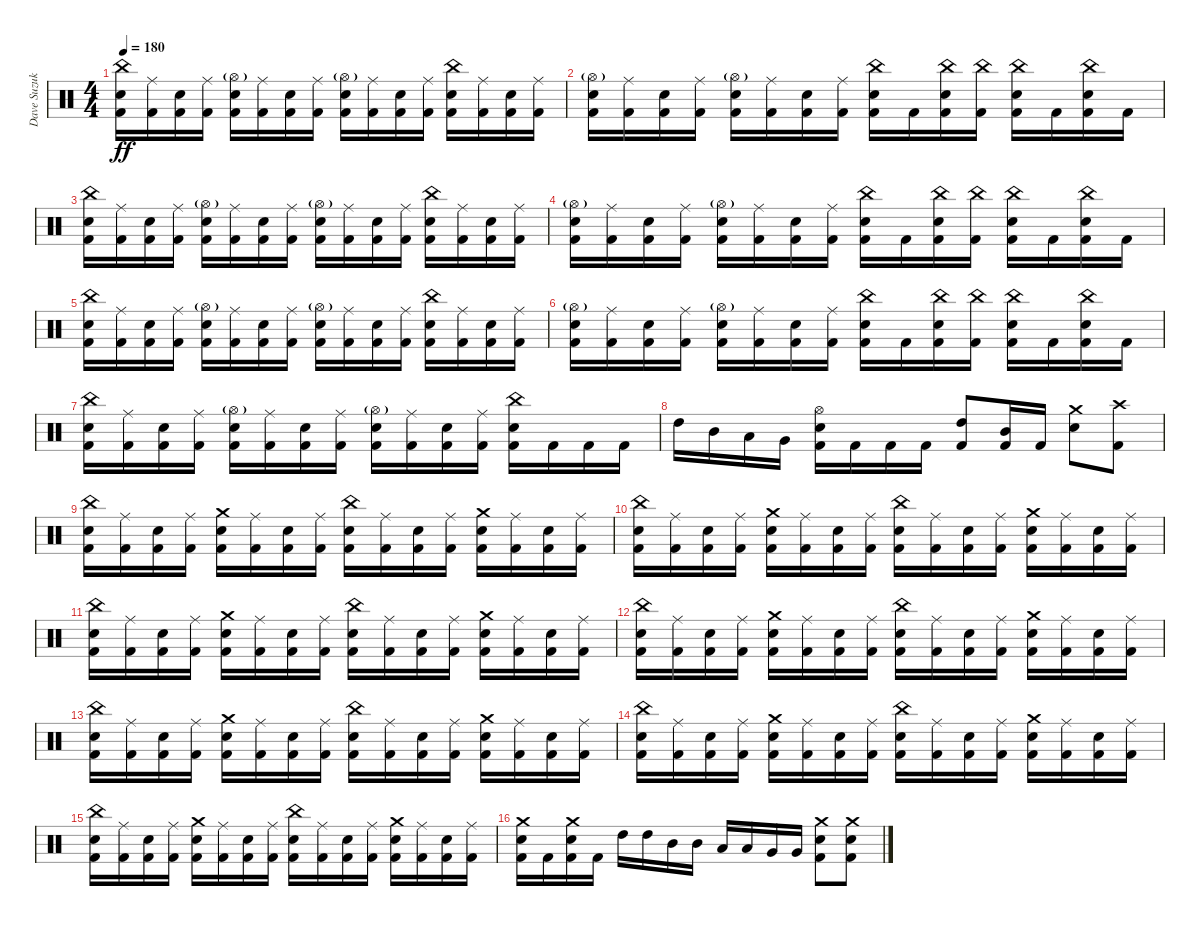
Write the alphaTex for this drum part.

\track ("Dave Suzuki - Drums" "Dave Suzuk") {instrument percussion}
\staff {score}
\articulation defaults
\ts (4 4)
\tempo 180
\clef neutral
\ks c
("China (hit)" "Electric Snare (hit)" "Kick (hit) 2").16{dy ff} ("Ride (middle)" "Kick (hit) 2").16 ("Electric Snare (hit)" "Kick (hit) 2").16 ("Ride (middle)" "Kick (hit) 2").16 ("Hi-Hat (open)"{g} "Electric Snare (hit)" "Kick (hit) 2").16 ("Ride (middle)" "Kick (hit) 2").16 ("Electric Snare (hit)" "Kick (hit) 2").16 ("Ride (middle)" "Kick (hit) 2").16 ("Hi-Hat (open)"{g} "Electric Snare (hit)" "Kick (hit) 2").16 ("Ride (middle)" "Kick (hit) 2").16 ("Electric Snare (hit)" "Kick (hit) 2").16 ("Ride (middle)" "Kick (hit) 2").16 ("China (hit)" "Electric Snare (hit)" "Kick (hit) 2").16 ("Ride (middle)" "Kick (hit) 2").16 ("Electric Snare (hit)" "Kick (hit) 2").16 ("Ride (middle)" "Kick (hit) 2").16 |
("Hi-Hat (open)"{g} "Electric Snare (hit)" "Kick (hit) 2").16 ("Ride (middle)" "Kick (hit) 2").16 ("Electric Snare (hit)" "Kick (hit) 2").16 ("Ride (middle)" "Kick (hit) 2").16 ("Hi-Hat (open)"{g} "Electric Snare (hit)" "Kick (hit) 2").16 ("Ride (middle)" "Kick (hit) 2").16 ("Electric Snare (hit)" "Kick (hit) 2").16 ("Ride (middle)" "Kick (hit) 2").16 ("China (hit)" "Electric Snare (hit)" "Kick (hit) 2").16 "Kick (hit) 2".16 ("China (hit)" "Electric Snare (hit)" "Kick (hit) 2").16 ("China (hit)" "Kick (hit) 2").16 ("China (hit)" "Electric Snare (hit)" "Kick (hit) 2").16 "Kick (hit) 2".16 ("China (hit)" "Electric Snare (hit)" "Kick (hit) 2").16 "Kick (hit) 2".16 |
("China (hit)" "Electric Snare (hit)" "Kick (hit) 2").16 ("Ride (middle)" "Kick (hit) 2").16 ("Electric Snare (hit)" "Kick (hit) 2").16 ("Ride (middle)" "Kick (hit) 2").16 ("Hi-Hat (open)"{g} "Electric Snare (hit)" "Kick (hit) 2").16 ("Ride (middle)" "Kick (hit) 2").16 ("Electric Snare (hit)" "Kick (hit) 2").16 ("Ride (middle)" "Kick (hit) 2").16 ("Hi-Hat (open)"{g} "Electric Snare (hit)" "Kick (hit) 2").16 ("Ride (middle)" "Kick (hit) 2").16 ("Electric Snare (hit)" "Kick (hit) 2").16 ("Ride (middle)" "Kick (hit) 2").16 ("China (hit)" "Electric Snare (hit)" "Kick (hit) 2").16 ("Ride (middle)" "Kick (hit) 2").16 ("Electric Snare (hit)" "Kick (hit) 2").16 ("Ride (middle)" "Kick (hit) 2").16 |
("Hi-Hat (open)"{g} "Electric Snare (hit)" "Kick (hit) 2").16 ("Ride (middle)" "Kick (hit) 2").16 ("Electric Snare (hit)" "Kick (hit) 2").16 ("Ride (middle)" "Kick (hit) 2").16 ("Hi-Hat (open)"{g} "Electric Snare (hit)" "Kick (hit) 2").16 ("Ride (middle)" "Kick (hit) 2").16 ("Electric Snare (hit)" "Kick (hit) 2").16 ("Ride (middle)" "Kick (hit) 2").16 ("China (hit)" "Electric Snare (hit)" "Kick (hit) 2").16 "Kick (hit) 2".16 ("China (hit)" "Electric Snare (hit)" "Kick (hit) 2").16 ("China (hit)" "Kick (hit) 2").16 ("China (hit)" "Electric Snare (hit)" "Kick (hit) 2").16 "Kick (hit) 2".16 ("China (hit)" "Electric Snare (hit)" "Kick (hit) 2").16 "Kick (hit) 2".16 |
("China (hit)" "Electric Snare (hit)" "Kick (hit) 2").16 ("Ride (middle)" "Kick (hit) 2").16 ("Electric Snare (hit)" "Kick (hit) 2").16 ("Ride (middle)" "Kick (hit) 2").16 ("Hi-Hat (open)"{g} "Electric Snare (hit)" "Kick (hit) 2").16 ("Ride (middle)" "Kick (hit) 2").16 ("Electric Snare (hit)" "Kick (hit) 2").16 ("Ride (middle)" "Kick (hit) 2").16 ("Hi-Hat (open)"{g} "Electric Snare (hit)" "Kick (hit) 2").16 ("Ride (middle)" "Kick (hit) 2").16 ("Electric Snare (hit)" "Kick (hit) 2").16 ("Ride (middle)" "Kick (hit) 2").16 ("China (hit)" "Electric Snare (hit)" "Kick (hit) 2").16 ("Ride (middle)" "Kick (hit) 2").16 ("Electric Snare (hit)" "Kick (hit) 2").16 ("Ride (middle)" "Kick (hit) 2").16 |
("Hi-Hat (open)"{g} "Electric Snare (hit)" "Kick (hit) 2").16 ("Ride (middle)" "Kick (hit) 2").16 ("Electric Snare (hit)" "Kick (hit) 2").16 ("Ride (middle)" "Kick (hit) 2").16 ("Hi-Hat (open)"{g} "Electric Snare (hit)" "Kick (hit) 2").16 ("Ride (middle)" "Kick (hit) 2").16 ("Electric Snare (hit)" "Kick (hit) 2").16 ("Ride (middle)" "Kick (hit) 2").16 ("China (hit)" "Electric Snare (hit)" "Kick (hit) 2").16 "Kick (hit) 2".16 ("China (hit)" "Electric Snare (hit)" "Kick (hit) 2").16 ("China (hit)" "Kick (hit) 2").16 ("China (hit)" "Electric Snare (hit)" "Kick (hit) 2").16 "Kick (hit) 2".16 ("China (hit)" "Electric Snare (hit)" "Kick (hit) 2").16 "Kick (hit) 2".16 |
("China (hit)" "Electric Snare (hit)" "Kick (hit) 2").16 ("Ride (middle)" "Kick (hit) 2").16 ("Electric Snare (hit)" "Kick (hit) 2").16 ("Ride (middle)" "Kick (hit) 2").16 ("Hi-Hat (open)"{g} "Electric Snare (hit)" "Kick (hit) 2").16 ("Ride (middle)" "Kick (hit) 2").16 ("Electric Snare (hit)" "Kick (hit) 2").16 ("Ride (middle)" "Kick (hit) 2").16 ("Hi-Hat (open)"{g} "Electric Snare (hit)" "Kick (hit) 2").16 ("Ride (middle)" "Kick (hit) 2").16 ("Electric Snare (hit)" "Kick (hit) 2").16 ("Ride (middle)" "Kick (hit) 2").16 ("China (hit)" "Electric Snare (hit)" "Kick (hit) 2").16 "Kick (hit) 2".16 "Kick (hit) 2".16 "Kick (hit) 2".16 |
"High Tom (hit)".16 "Mid Tom (hit)".16 "Low Tom (hit)".16 "Very Low Tom (hit)".16 ("Hi-Hat (open)" "Electric Snare (hit)" "Kick (hit) 2").16 "Kick (hit) 2".16 "Kick (hit) 2".16 "Kick (hit) 2".16 ("High Tom (hit)" "Kick (hit) 2").8 ("Mid Tom (hit)" "Kick (hit) 2").16 "Kick (hit) 2".16 ("Crash medium (hit)" "Electric Snare (hit)").8 ("Crash high (hit)" "Kick (hit) 2").8 |
("China (hit)" "Electric Snare (hit)" "Kick (hit) 2").16 ("Ride (middle)" "Kick (hit) 2").16 ("Electric Snare (hit)" "Kick (hit) 2").16 ("Ride (middle)" "Kick (hit) 2").16 ("Crash medium (hit)" "Electric Snare (hit)" "Kick (hit) 2").16 ("Ride (middle)" "Kick (hit) 2").16 ("Electric Snare (hit)" "Kick (hit) 2").16 ("Ride (middle)" "Kick (hit) 2").16 ("China (hit)" "Electric Snare (hit)" "Kick (hit) 2").16 ("Ride (middle)" "Kick (hit) 2").16 ("Electric Snare (hit)" "Kick (hit) 2").16 ("Ride (middle)" "Kick (hit) 2").16 ("Crash medium (hit)" "Electric Snare (hit)" "Kick (hit) 2").16 ("Ride (middle)" "Kick (hit) 2").16 ("Electric Snare (hit)" "Kick (hit) 2").16 ("Ride (middle)" "Kick (hit) 2").16 |
("China (hit)" "Electric Snare (hit)" "Kick (hit) 2").16 ("Ride (middle)" "Kick (hit) 2").16 ("Electric Snare (hit)" "Kick (hit) 2").16 ("Ride (middle)" "Kick (hit) 2").16 ("Crash medium (hit)" "Electric Snare (hit)" "Kick (hit) 2").16 ("Ride (middle)" "Kick (hit) 2").16 ("Electric Snare (hit)" "Kick (hit) 2").16 ("Ride (middle)" "Kick (hit) 2").16 ("China (hit)" "Electric Snare (hit)" "Kick (hit) 2").16 ("Ride (middle)" "Kick (hit) 2").16 ("Electric Snare (hit)" "Kick (hit) 2").16 ("Ride (middle)" "Kick (hit) 2").16 ("Crash medium (hit)" "Electric Snare (hit)" "Kick (hit) 2").16 ("Ride (middle)" "Kick (hit) 2").16 ("Electric Snare (hit)" "Kick (hit) 2").16 ("Ride (middle)" "Kick (hit) 2").16 |
("China (hit)" "Electric Snare (hit)" "Kick (hit) 2").16 ("Ride (middle)" "Kick (hit) 2").16 ("Electric Snare (hit)" "Kick (hit) 2").16 ("Ride (middle)" "Kick (hit) 2").16 ("Crash medium (hit)" "Electric Snare (hit)" "Kick (hit) 2").16 ("Ride (middle)" "Kick (hit) 2").16 ("Electric Snare (hit)" "Kick (hit) 2").16 ("Ride (middle)" "Kick (hit) 2").16 ("China (hit)" "Electric Snare (hit)" "Kick (hit) 2").16 ("Ride (middle)" "Kick (hit) 2").16 ("Electric Snare (hit)" "Kick (hit) 2").16 ("Ride (middle)" "Kick (hit) 2").16 ("Crash medium (hit)" "Electric Snare (hit)" "Kick (hit) 2").16 ("Ride (middle)" "Kick (hit) 2").16 ("Electric Snare (hit)" "Kick (hit) 2").16 ("Ride (middle)" "Kick (hit) 2").16 |
("China (hit)" "Electric Snare (hit)" "Kick (hit) 2").16 ("Ride (middle)" "Kick (hit) 2").16 ("Electric Snare (hit)" "Kick (hit) 2").16 ("Ride (middle)" "Kick (hit) 2").16 ("Crash medium (hit)" "Electric Snare (hit)" "Kick (hit) 2").16 ("Ride (middle)" "Kick (hit) 2").16 ("Electric Snare (hit)" "Kick (hit) 2").16 ("Ride (middle)" "Kick (hit) 2").16 ("China (hit)" "Electric Snare (hit)" "Kick (hit) 2").16 ("Ride (middle)" "Kick (hit) 2").16 ("Electric Snare (hit)" "Kick (hit) 2").16 ("Ride (middle)" "Kick (hit) 2").16 ("Crash medium (hit)" "Electric Snare (hit)" "Kick (hit) 2").16 ("Ride (middle)" "Kick (hit) 2").16 ("Electric Snare (hit)" "Kick (hit) 2").16 ("Ride (middle)" "Kick (hit) 2").16 |
("China (hit)" "Electric Snare (hit)" "Kick (hit) 2").16 ("Ride (middle)" "Kick (hit) 2").16 ("Electric Snare (hit)" "Kick (hit) 2").16 ("Ride (middle)" "Kick (hit) 2").16 ("Crash medium (hit)" "Electric Snare (hit)" "Kick (hit) 2").16 ("Ride (middle)" "Kick (hit) 2").16 ("Electric Snare (hit)" "Kick (hit) 2").16 ("Ride (middle)" "Kick (hit) 2").16 ("China (hit)" "Electric Snare (hit)" "Kick (hit) 2").16 ("Ride (middle)" "Kick (hit) 2").16 ("Electric Snare (hit)" "Kick (hit) 2").16 ("Ride (middle)" "Kick (hit) 2").16 ("Crash medium (hit)" "Electric Snare (hit)" "Kick (hit) 2").16 ("Ride (middle)" "Kick (hit) 2").16 ("Electric Snare (hit)" "Kick (hit) 2").16 ("Ride (middle)" "Kick (hit) 2").16 |
("China (hit)" "Electric Snare (hit)" "Kick (hit) 2").16 ("Ride (middle)" "Kick (hit) 2").16 ("Electric Snare (hit)" "Kick (hit) 2").16 ("Ride (middle)" "Kick (hit) 2").16 ("Crash medium (hit)" "Electric Snare (hit)" "Kick (hit) 2").16 ("Ride (middle)" "Kick (hit) 2").16 ("Electric Snare (hit)" "Kick (hit) 2").16 ("Ride (middle)" "Kick (hit) 2").16 ("China (hit)" "Electric Snare (hit)" "Kick (hit) 2").16 ("Ride (middle)" "Kick (hit) 2").16 ("Electric Snare (hit)" "Kick (hit) 2").16 ("Ride (middle)" "Kick (hit) 2").16 ("Crash medium (hit)" "Electric Snare (hit)" "Kick (hit) 2").16 ("Ride (middle)" "Kick (hit) 2").16 ("Electric Snare (hit)" "Kick (hit) 2").16 ("Ride (middle)" "Kick (hit) 2").16 |
("China (hit)" "Electric Snare (hit)" "Kick (hit) 2").16 ("Ride (middle)" "Kick (hit) 2").16 ("Electric Snare (hit)" "Kick (hit) 2").16 ("Ride (middle)" "Kick (hit) 2").16 ("Crash medium (hit)" "Electric Snare (hit)" "Kick (hit) 2").16 ("Ride (middle)" "Kick (hit) 2").16 ("Electric Snare (hit)" "Kick (hit) 2").16 ("Ride (middle)" "Kick (hit) 2").16 ("China (hit)" "Electric Snare (hit)" "Kick (hit) 2").16 ("Ride (middle)" "Kick (hit) 2").16 ("Electric Snare (hit)" "Kick (hit) 2").16 ("Ride (middle)" "Kick (hit) 2").16 ("Crash medium (hit)" "Electric Snare (hit)" "Kick (hit) 2").16 ("Ride (middle)" "Kick (hit) 2").16 ("Electric Snare (hit)" "Kick (hit) 2").16 ("Ride (middle)" "Kick (hit) 2").16 |
("Crash medium (hit)" "Electric Snare (hit)" "Kick (hit) 2").16 "Kick (hit) 2".16 ("Crash medium (hit)" "Electric Snare (hit)" "Kick (hit) 2").16 "Kick (hit) 2".16 "High Tom (hit)".16 "High Tom (hit)".16 "Mid Tom (hit)".16 "Mid Tom (hit)".16 "Low Tom (hit)".16 "Low Tom (hit)".16 "Very Low Tom (hit)".16 "Very Low Tom (hit)".16 ("Crash medium (hit)" "Electric Snare (hit)" "Kick (hit) 2").8 ("Crash medium (hit)" "Electric Snare (hit)" "Kick (hit) 2").8
